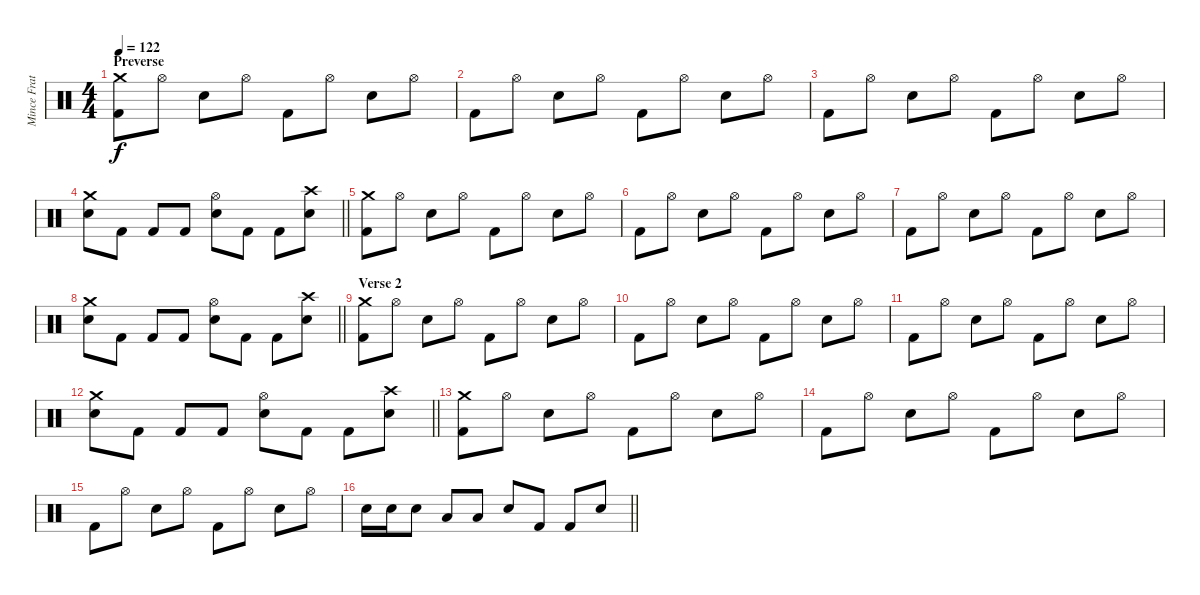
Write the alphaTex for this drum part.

\track ("Mince Fratelli" "Mince Frat") {instrument percussion}
\staff {score}
\articulation defaults
\ts (4 4)
\section ("" "Preverse")
\tempo 122
\clef neutral
\ks c
("Crash medium (hit)" "Kick (hit) 2").8{dy f} "Hi-Hat (open)".8 "Snare (hit) 2".8 "Hi-Hat (open)".8 "Kick (hit) 2".8 "Hi-Hat (open)".8 "Snare (hit) 2".8 "Hi-Hat (open)".8 |
"Kick (hit) 2".8 "Hi-Hat (open)".8 "Snare (hit) 2".8 "Hi-Hat (open)".8 "Kick (hit) 2".8 "Hi-Hat (open)".8 "Snare (hit) 2".8 "Hi-Hat (open)".8 |
"Kick (hit) 2".8 "Hi-Hat (open)".8 "Snare (hit) 2".8 "Hi-Hat (open)".8 "Kick (hit) 2".8 "Hi-Hat (open)".8 "Snare (hit) 2".8 "Hi-Hat (open)".8 |
\barLineRight lightlight
("Crash medium (hit)" "Snare (hit) 2").8 "Kick (hit) 2".8 "Kick (hit) 2".8 "Kick (hit) 2".8 ("Hi-Hat (open)" "Snare (hit) 2").8 "Kick (hit) 2".8 "Kick (hit) 2".8 ("Crash high (hit)" "Snare (hit) 2").8 |
("Crash medium (hit)" "Kick (hit) 2").8 "Hi-Hat (open)".8 "Snare (hit) 2".8 "Hi-Hat (open)".8 "Kick (hit) 2".8 "Hi-Hat (open)".8 "Snare (hit) 2".8 "Hi-Hat (open)".8 |
"Kick (hit) 2".8 "Hi-Hat (open)".8 "Snare (hit) 2".8 "Hi-Hat (open)".8 "Kick (hit) 2".8 "Hi-Hat (open)".8 "Snare (hit) 2".8 "Hi-Hat (open)".8 |
"Kick (hit) 2".8 "Hi-Hat (open)".8 "Snare (hit) 2".8 "Hi-Hat (open)".8 "Kick (hit) 2".8 "Hi-Hat (open)".8 "Snare (hit) 2".8 "Hi-Hat (open)".8 |
\barLineRight lightlight
("Crash medium (hit)" "Snare (hit) 2").8 "Kick (hit) 2".8 "Kick (hit) 2".8 "Kick (hit) 2".8 ("Hi-Hat (open)" "Snare (hit) 2").8 "Kick (hit) 2".8 "Kick (hit) 2".8 ("Crash high (hit)" "Snare (hit) 2").8 |
\section ("" "Verse 2")
("Crash medium (hit)" "Kick (hit) 2").8 "Hi-Hat (open)".8 "Snare (hit) 2".8 "Hi-Hat (open)".8 "Kick (hit) 2".8 "Hi-Hat (open)".8 "Snare (hit) 2".8 "Hi-Hat (open)".8 |
"Kick (hit) 2".8 "Hi-Hat (open)".8 "Snare (hit) 2".8 "Hi-Hat (open)".8 "Kick (hit) 2".8 "Hi-Hat (open)".8 "Snare (hit) 2".8 "Hi-Hat (open)".8 |
"Kick (hit) 2".8 "Hi-Hat (open)".8 "Snare (hit) 2".8 "Hi-Hat (open)".8 "Kick (hit) 2".8 "Hi-Hat (open)".8 "Snare (hit) 2".8 "Hi-Hat (open)".8 |
\barLineRight lightlight
("Crash medium (hit)" "Snare (hit) 2").8 "Kick (hit) 2".8 "Kick (hit) 2".8 "Kick (hit) 2".8 ("Hi-Hat (open)" "Snare (hit) 2").8 "Kick (hit) 2".8 "Kick (hit) 2".8 ("Crash high (hit)" "Snare (hit) 2").8 |
("Crash medium (hit)" "Kick (hit) 2").8 "Hi-Hat (open)".8 "Snare (hit) 2".8 "Hi-Hat (open)".8 "Kick (hit) 2".8 "Hi-Hat (open)".8 "Snare (hit) 2".8 "Hi-Hat (open)".8 |
"Kick (hit) 2".8 "Hi-Hat (open)".8 "Snare (hit) 2".8 "Hi-Hat (open)".8 "Kick (hit) 2".8 "Hi-Hat (open)".8 "Snare (hit) 2".8 "Hi-Hat (open)".8 |
"Kick (hit) 2".8 "Hi-Hat (open)".8 "Snare (hit) 2".8 "Hi-Hat (open)".8 "Kick (hit) 2".8 "Hi-Hat (open)".8 "Snare (hit) 2".8 "Hi-Hat (open)".8 |
\barLineRight lightlight "Snare (hit) 2".16 "Snare (hit) 2".16 "Snare (hit) 2".8 "Low Tom (hit)".8 "Low Tom (hit)".8 "Snare (hit) 2".8 "Kick (hit) 2".8 "Kick (hit) 2".8 "Snare (hit) 2".8
